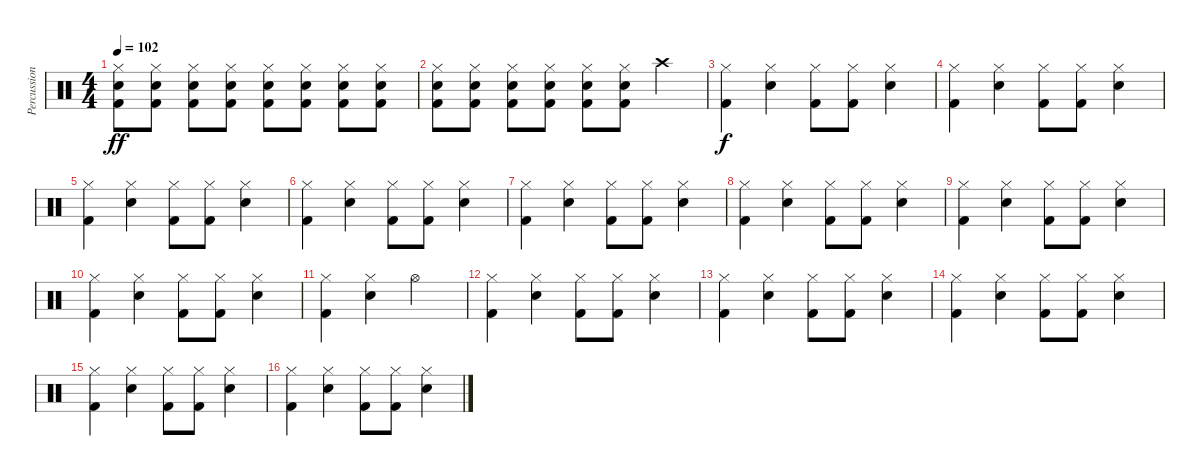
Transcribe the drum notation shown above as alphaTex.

\track ("Percussion" "Percussion") {instrument percussion}
\staff {score}
\articulation defaults
\ts (4 4)
\tempo 102
\clef neutral
\ks c
("Hi-Hat (closed)" "Snare (hit)" "Kick (hit) 2").8{dy ff} ("Hi-Hat (closed)" "Snare (hit)" "Kick (hit) 2").8 ("Hi-Hat (closed)" "Snare (hit)" "Kick (hit) 2").8 ("Hi-Hat (closed)" "Snare (hit)" "Kick (hit) 2").8 ("Hi-Hat (closed)" "Snare (hit)" "Kick (hit) 2").8 ("Hi-Hat (closed)" "Snare (hit)" "Kick (hit) 2").8 ("Hi-Hat (closed)" "Snare (hit)" "Kick (hit) 2").8 ("Hi-Hat (closed)" "Snare (hit)" "Kick (hit) 2").8 |
("Hi-Hat (closed)" "Snare (hit)" "Kick (hit) 2").8 ("Hi-Hat (closed)" "Snare (hit)" "Kick (hit) 2").8 ("Hi-Hat (closed)" "Snare (hit)" "Kick (hit) 2").8 ("Hi-Hat (closed)" "Snare (hit)" "Kick (hit) 2").8 ("Hi-Hat (closed)" "Snare (hit)" "Kick (hit) 2").8 ("Hi-Hat (closed)" "Snare (hit)" "Kick (hit) 2").8 "Crash high (hit)".4 |
("Hi-Hat (closed)" "Kick (hit) 2").4{dy f} ("Hi-Hat (closed)" "Snare (hit) 2").4 ("Hi-Hat (closed)" "Kick (hit) 2").8 ("Hi-Hat (closed)" "Kick (hit) 2").8 ("Hi-Hat (closed)" "Snare (hit) 2").4 |
("Hi-Hat (closed)" "Kick (hit) 2").4 ("Hi-Hat (closed)" "Snare (hit) 2").4 ("Hi-Hat (closed)" "Kick (hit) 2").8 ("Hi-Hat (closed)" "Kick (hit) 2").8 ("Hi-Hat (closed)" "Snare (hit) 2").4 |
("Hi-Hat (closed)" "Kick (hit) 2").4 ("Hi-Hat (closed)" "Snare (hit) 2").4 ("Hi-Hat (closed)" "Kick (hit) 2").8 ("Hi-Hat (closed)" "Kick (hit) 2").8 ("Hi-Hat (closed)" "Snare (hit) 2").4 |
("Hi-Hat (closed)" "Kick (hit) 2").4 ("Hi-Hat (closed)" "Snare (hit) 2").4 ("Hi-Hat (closed)" "Kick (hit) 2").8 ("Hi-Hat (closed)" "Kick (hit) 2").8 ("Hi-Hat (closed)" "Snare (hit) 2").4 |
("Hi-Hat (closed)" "Kick (hit) 2").4 ("Hi-Hat (closed)" "Snare (hit) 2").4 ("Hi-Hat (closed)" "Kick (hit) 2").8 ("Hi-Hat (closed)" "Kick (hit) 2").8 ("Hi-Hat (closed)" "Snare (hit) 2").4 |
("Hi-Hat (closed)" "Kick (hit) 2").4 ("Hi-Hat (closed)" "Snare (hit) 2").4 ("Hi-Hat (closed)" "Kick (hit) 2").8 ("Hi-Hat (closed)" "Kick (hit) 2").8 ("Hi-Hat (closed)" "Snare (hit) 2").4 |
("Hi-Hat (closed)" "Kick (hit) 2").4 ("Hi-Hat (closed)" "Snare (hit) 2").4 ("Hi-Hat (closed)" "Kick (hit) 2").8 ("Hi-Hat (closed)" "Kick (hit) 2").8 ("Hi-Hat (closed)" "Snare (hit) 2").4 |
("Hi-Hat (closed)" "Kick (hit) 2").4 ("Hi-Hat (closed)" "Snare (hit) 2").4 ("Hi-Hat (closed)" "Kick (hit) 2").8 ("Hi-Hat (closed)" "Kick (hit) 2").8 ("Hi-Hat (closed)" "Snare (hit) 2").4 |
("Hi-Hat (closed)" "Kick (hit) 2").4 ("Hi-Hat (closed)" "Snare (hit) 2").4 "Hi-Hat (open)".2 |
("Hi-Hat (closed)" "Kick (hit) 2").4 ("Hi-Hat (closed)" "Snare (hit) 2").4 ("Hi-Hat (closed)" "Kick (hit) 2").8 ("Hi-Hat (closed)" "Kick (hit) 2").8 ("Hi-Hat (closed)" "Snare (hit) 2").4 |
("Hi-Hat (closed)" "Kick (hit) 2").4 ("Hi-Hat (closed)" "Snare (hit) 2").4 ("Hi-Hat (closed)" "Kick (hit) 2").8 ("Hi-Hat (closed)" "Kick (hit) 2").8 ("Hi-Hat (closed)" "Snare (hit) 2").4 |
("Hi-Hat (closed)" "Kick (hit) 2").4 ("Hi-Hat (closed)" "Snare (hit) 2").4 ("Hi-Hat (closed)" "Kick (hit) 2").8 ("Hi-Hat (closed)" "Kick (hit) 2").8 ("Hi-Hat (closed)" "Snare (hit) 2").4 |
("Hi-Hat (closed)" "Kick (hit) 2").4 ("Hi-Hat (closed)" "Snare (hit) 2").4 ("Hi-Hat (closed)" "Kick (hit) 2").8 ("Hi-Hat (closed)" "Kick (hit) 2").8 ("Hi-Hat (closed)" "Snare (hit) 2").4 |
("Hi-Hat (closed)" "Kick (hit) 2").4 ("Hi-Hat (closed)" "Snare (hit) 2").4 ("Hi-Hat (closed)" "Kick (hit) 2").8 ("Hi-Hat (closed)" "Kick (hit) 2").8 ("Hi-Hat (closed)" "Snare (hit) 2").4
